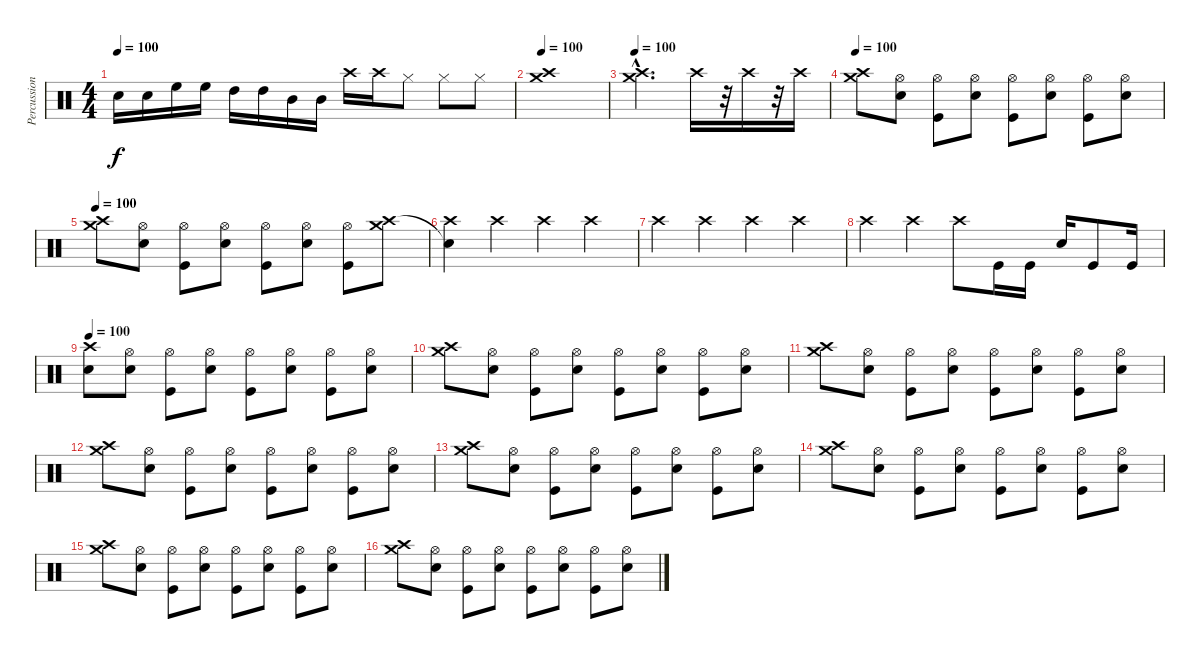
\track ("Percussion" "Percussion") {instrument percussion}
\staff {score}
\articulation defaults
\ts (4 4)
\tempo 100
\clef neutral
\ks c "Snare (hit) 2".16{dy f} "Snare (hit) 2".16 "High Floor Tom (hit)".16 "High Floor Tom (hit)".16 "High Tom (hit)".16 "High Tom (hit)".16 "Mid Tom (hit)".16 "Mid Tom (hit)".16 "Crash high (hit)".16 "Crash high (hit)".16 "Hi-Hat (closed)".8 "Hi-Hat (closed)".8 "Hi-Hat (closed)".8
|
\tempo 100
("Crash high (hit)" "Crash medium (hit)").1 |
\tempo 100
("Crash high (hit)"{hac} "Crash medium (hit)"{hac}).2{d} "Crash high (hit)".16 r.32 "Crash high (hit)".16 r.32 "Crash high (hit)".16 |
\tempo 100
("Crash high (hit)" "Crash medium (hit)").8 ("Snare (hit) 2" "Hi-Hat (open)").8 ("Kick (hit)" "Hi-Hat (open)").8 ("Snare (hit) 2" "Hi-Hat (open)").8 ("Kick (hit)" "Hi-Hat (open)").8 ("Snare (hit) 2" "Hi-Hat (open)").8 ("Kick (hit)" "Hi-Hat (open)").8 ("Snare (hit) 2" "Hi-Hat (open)").8 |
\tempo 100
("Crash high (hit)" "Crash medium (hit)").8 ("Snare (hit) 2" "Hi-Hat (open)").8 ("Kick (hit)" "Hi-Hat (open)").8 ("Snare (hit) 2" "Hi-Hat (open)").8 ("Kick (hit)" "Hi-Hat (open)").8 ("Snare (hit) 2" "Hi-Hat (open)").8 ("Kick (hit)" "Hi-Hat (open)").8 ("Crash high (hit)" "Crash medium (hit)").8 |
("Snare (hit)"{t} "Crash high (hit)").4 "Crash high (hit)".4 "Crash high (hit)".4 "Crash high (hit)".4 |
"Crash high (hit)".4 "Crash high (hit)".4 "Crash high (hit)".4 "Crash high (hit)".4 |
"Crash high (hit)".4 "Crash high (hit)".4 "Crash high (hit)".8 "Kick (hit)".16 "Kick (hit)".16 "Snare (hit) 2".16 "Kick (hit)".8 "Kick (hit)".16 |
\tempo 100
("Crash high (hit)" "Snare (hit)").8 ("Snare (hit) 2" "Hi-Hat (open)").8 ("Kick (hit)" "Hi-Hat (open)").8 ("Snare (hit) 2" "Hi-Hat (open)").8 ("Kick (hit)" "Hi-Hat (open)").8 ("Snare (hit) 2" "Hi-Hat (open)").8 ("Kick (hit)" "Hi-Hat (open)").8 ("Snare (hit) 2" "Hi-Hat (open)").8 |
("Crash high (hit)" "Crash medium (hit)").8 ("Snare (hit) 2" "Hi-Hat (open)").8 ("Kick (hit)" "Hi-Hat (open)").8 ("Snare (hit) 2" "Hi-Hat (open)").8 ("Kick (hit)" "Hi-Hat (open)").8 ("Snare (hit) 2" "Hi-Hat (open)").8 ("Kick (hit)" "Hi-Hat (open)").8 ("Snare (hit) 2" "Hi-Hat (open)").8 |
("Crash high (hit)" "Crash medium (hit)").8 ("Snare (hit) 2" "Hi-Hat (open)").8 ("Kick (hit)" "Hi-Hat (open)").8 ("Snare (hit) 2" "Hi-Hat (open)").8 ("Kick (hit)" "Hi-Hat (open)").8 ("Snare (hit) 2" "Hi-Hat (open)").8 ("Kick (hit)" "Hi-Hat (open)").8 ("Snare (hit) 2" "Hi-Hat (open)").8 |
("Crash high (hit)" "Crash medium (hit)").8 ("Snare (hit) 2" "Hi-Hat (open)").8 ("Kick (hit)" "Hi-Hat (open)").8 ("Snare (hit) 2" "Hi-Hat (open)").8 ("Kick (hit)" "Hi-Hat (open)").8 ("Snare (hit) 2" "Hi-Hat (open)").8 ("Kick (hit)" "Hi-Hat (open)").8 ("Snare (hit) 2" "Hi-Hat (open)").8 |
("Crash high (hit)" "Crash medium (hit)").8 ("Snare (hit) 2" "Hi-Hat (open)").8 ("Kick (hit)" "Hi-Hat (open)").8 ("Snare (hit) 2" "Hi-Hat (open)").8 ("Kick (hit)" "Hi-Hat (open)").8 ("Snare (hit) 2" "Hi-Hat (open)").8 ("Kick (hit)" "Hi-Hat (open)").8 ("Snare (hit) 2" "Hi-Hat (open)").8 |
("Crash high (hit)" "Crash medium (hit)").8 ("Snare (hit) 2" "Hi-Hat (open)").8 ("Kick (hit)" "Hi-Hat (open)").8 ("Snare (hit) 2" "Hi-Hat (open)").8 ("Kick (hit)" "Hi-Hat (open)").8 ("Snare (hit) 2" "Hi-Hat (open)").8 ("Kick (hit)" "Hi-Hat (open)").8 ("Snare (hit) 2" "Hi-Hat (open)").8 |
("Crash high (hit)" "Crash medium (hit)").8 ("Snare (hit) 2" "Hi-Hat (open)").8 ("Kick (hit)" "Hi-Hat (open)").8 ("Snare (hit) 2" "Hi-Hat (open)").8 ("Kick (hit)" "Hi-Hat (open)").8 ("Snare (hit) 2" "Hi-Hat (open)").8 ("Kick (hit)" "Hi-Hat (open)").8 ("Snare (hit) 2" "Hi-Hat (open)").8 |
("Crash high (hit)" "Crash medium (hit)").8 ("Snare (hit) 2" "Hi-Hat (open)").8 ("Kick (hit)" "Hi-Hat (open)").8 ("Snare (hit) 2" "Hi-Hat (open)").8 ("Kick (hit)" "Hi-Hat (open)").8 ("Snare (hit) 2" "Hi-Hat (open)").8 ("Kick (hit)" "Hi-Hat (open)").8 ("Snare (hit) 2" "Hi-Hat (open)").8
